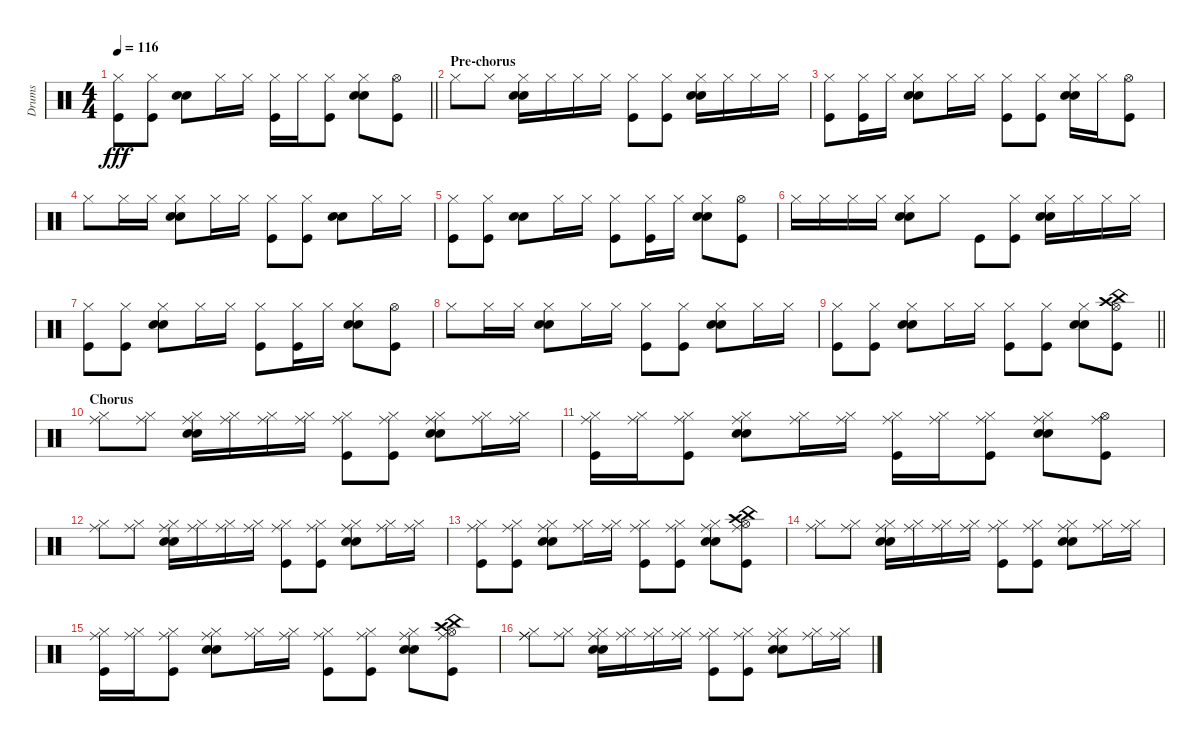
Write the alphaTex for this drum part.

\track ("Drums" "Drums") {instrument percussion}
\staff {score}
\articulation defaults
\ts (4 4)
\tempo 116
\clef neutral
\barLineRight lightlight
\ks c
("Hi-Hat (closed)" "Kick (hit)").8{dy fff} ("Hi-Hat (closed)" "Kick (hit)").8 ("Snare (hit) 2" "Electric Snare (hit)").8 "Hi-Hat (closed)".16 "Hi-Hat (closed)".16 ("Hi-Hat (closed)" "Kick (hit)").16 "Hi-Hat (closed)".16 ("Hi-Hat (closed)" "Kick (hit)").8 ("Hi-Hat (closed)" "Snare (hit) 2" "Electric Snare (hit)").8 ("Hi-Hat (open)" "Kick (hit)").8 |
\section ("" "Pre-chorus")
"Hi-Hat (closed)".8 "Hi-Hat (closed)".8 ("Snare (hit) 2" "Electric Snare (hit)" "Hi-Hat (closed)").16 "Hi-Hat (closed)".16 "Hi-Hat (closed)".16 "Hi-Hat (closed)".16 ("Hi-Hat (closed)" "Kick (hit)").8 ("Hi-Hat (closed)" "Kick (hit)").8 ("Hi-Hat (closed)" "Snare (hit) 2" "Electric Snare (hit)").16 "Hi-Hat (closed)".16 "Hi-Hat (closed)".16 "Hi-Hat (closed)".16 |
("Hi-Hat (closed)" "Kick (hit)").8 ("Hi-Hat (closed)" "Kick (hit)").16 "Hi-Hat (closed)".16 ("Snare (hit) 2" "Electric Snare (hit)" "Hi-Hat (closed)").8 "Hi-Hat (closed)".16 "Hi-Hat (closed)".16 ("Kick (hit)" "Hi-Hat (closed)").8 ("Hi-Hat (closed)" "Kick (hit)").8 ("Hi-Hat (closed)" "Snare (hit) 2" "Electric Snare (hit)").16 "Hi-Hat (closed)".16 ("Hi-Hat (open)" "Kick (hit)").8 |
"Hi-Hat (closed)".8 "Hi-Hat (closed)".16 "Hi-Hat (closed)".16 ("Hi-Hat (closed)" "Snare (hit) 2" "Electric Snare (hit)").8 "Hi-Hat (closed)".16 "Hi-Hat (closed)".16 ("Hi-Hat (closed)" "Kick (hit)").8 ("Hi-Hat (closed)" "Kick (hit)").8 ("Snare (hit) 2" "Electric Snare (hit)").8 "Hi-Hat (closed)".16 "Hi-Hat (closed)".16 |
("Hi-Hat (closed)" "Kick (hit)").8 ("Hi-Hat (closed)" "Kick (hit)").8 ("Snare (hit) 2" "Electric Snare (hit)").8 "Hi-Hat (closed)".16 "Hi-Hat (closed)".16 ("Hi-Hat (closed)" "Kick (hit)").8 ("Hi-Hat (closed)" "Kick (hit)").16 "Hi-Hat (closed)".16 ("Snare (hit) 2" "Electric Snare (hit)" "Hi-Hat (closed)").8 ("Hi-Hat (open)" "Kick (hit)").8 |
"Hi-Hat (closed)".16 "Hi-Hat (closed)".16 "Hi-Hat (closed)".16 "Hi-Hat (closed)".16 ("Snare (hit) 2" "Electric Snare (hit)" "Hi-Hat (closed)").8 "Hi-Hat (closed)".8 "Kick (hit)".8 ("Hi-Hat (closed)" "Kick (hit)").8 ("Hi-Hat (closed)" "Snare (hit) 2" "Electric Snare (hit)").16 "Hi-Hat (closed)".16 "Hi-Hat (closed)".16 "Hi-Hat (closed)".16 |
("Hi-Hat (closed)" "Kick (hit)").8 ("Hi-Hat (closed)" "Kick (hit)").8 ("Snare (hit) 2" "Electric Snare (hit)" "Hi-Hat (closed)").8 "Hi-Hat (closed)".16 "Hi-Hat (closed)".16 ("Hi-Hat (closed)" "Kick (hit)").8 ("Hi-Hat (closed)" "Kick (hit)").16 "Hi-Hat (closed)".16 ("Snare (hit) 2" "Electric Snare (hit)" "Hi-Hat (closed)").8 ("Hi-Hat (open)" "Kick (hit)").8 |
"Hi-Hat (closed)".8 "Hi-Hat (closed)".16 "Hi-Hat (closed)".16 ("Snare (hit) 2" "Electric Snare (hit)" "Hi-Hat (closed)").8 "Hi-Hat (closed)".16 "Hi-Hat (closed)".16 ("Hi-Hat (closed)" "Kick (hit)").8 ("Hi-Hat (closed)" "Kick (hit)").8 ("Snare (hit) 2" "Electric Snare (hit)" "Hi-Hat (closed)").8 "Hi-Hat (closed)".16 "Hi-Hat (closed)".16 |
\barLineRight lightlight
("Hi-Hat (closed)" "Kick (hit)").8 ("Hi-Hat (closed)" "Kick (hit)").8 ("Snare (hit) 2" "Electric Snare (hit)" "Hi-Hat (closed)").8 "Hi-Hat (closed)".16 "Hi-Hat (closed)".16 ("Hi-Hat (closed)" "Kick (hit)").8 ("Hi-Hat (closed)" "Kick (hit)").8 ("Hi-Hat (closed)" "Snare (hit) 2" "Electric Snare (hit)").8 ("Crash high (hit)" "China (hit)" "Hi-Hat (open)" "Kick (hit)").8 |
\section ("" "Chorus")
("Ride (middle)" "Hi-Hat (closed)").8 ("Ride (middle)" "Hi-Hat (closed)").8 ("Snare (hit) 2" "Electric Snare (hit)" "Ride (middle)" "Hi-Hat (closed)").16 ("Ride (middle)" "Hi-Hat (closed)").16 ("Ride (middle)" "Hi-Hat (closed)").16 ("Ride (middle)" "Hi-Hat (closed)").16 ("Kick (hit)" "Ride (middle)" "Hi-Hat (closed)").8 ("Ride (middle)" "Hi-Hat (closed)" "Kick (hit)").8 ("Snare (hit) 2" "Electric Snare (hit)" "Ride (middle)" "Hi-Hat (closed)").8 ("Ride (middle)" "Hi-Hat (closed)").16 ("Ride (middle)" "Hi-Hat (closed)").16 |
("Ride (middle)" "Hi-Hat (closed)" "Kick (hit)").16 ("Ride (middle)" "Hi-Hat (closed)").16 ("Ride (middle)" "Hi-Hat (closed)" "Kick (hit)").8 ("Ride (middle)" "Hi-Hat (closed)" "Snare (hit) 2" "Electric Snare (hit)").8 ("Ride (middle)" "Hi-Hat (closed)").16 ("Ride (middle)" "Hi-Hat (closed)").16 ("Ride (middle)" "Hi-Hat (closed)" "Kick (hit)").16 ("Ride (middle)" "Hi-Hat (closed)").16 ("Ride (middle)" "Hi-Hat (closed)" "Kick (hit)").8 ("Snare (hit) 2" "Electric Snare (hit)" "Ride (middle)" "Hi-Hat (closed)").8 ("Ride (middle)" "Hi-Hat (open)" "Kick (hit)").8 |
("Ride (middle)" "Hi-Hat (closed)").8 ("Ride (middle)" "Hi-Hat (closed)").8 ("Snare (hit) 2" "Electric Snare (hit)" "Ride (middle)" "Hi-Hat (closed)").16 ("Ride (middle)" "Hi-Hat (closed)").16 ("Ride (middle)" "Hi-Hat (closed)").16 ("Ride (middle)" "Hi-Hat (closed)").16 ("Ride (middle)" "Hi-Hat (closed)" "Kick (hit)").8 ("Ride (middle)" "Hi-Hat (closed)" "Kick (hit)").8 ("Snare (hit) 2" "Electric Snare (hit)" "Ride (middle)" "Hi-Hat (closed)").8 ("Ride (middle)" "Hi-Hat (closed)").16 ("Ride (middle)" "Hi-Hat (closed)").16 |
("Ride (middle)" "Hi-Hat (closed)" "Kick (hit)").8 ("Ride (middle)" "Hi-Hat (closed)" "Kick (hit)").8 ("Ride (middle)" "Hi-Hat (closed)" "Snare (hit) 2" "Electric Snare (hit)").8 ("Ride (middle)" "Hi-Hat (closed)").16 ("Ride (middle)" "Hi-Hat (closed)").16 ("Ride (middle)" "Hi-Hat (closed)" "Kick (hit)").8 ("Ride (middle)" "Hi-Hat (closed)" "Kick (hit)").8 ("Snare (hit) 2" "Electric Snare (hit)" "Ride (middle)" "Hi-Hat (closed)").8 ("Crash high (hit)" "China (hit)" "Ride (middle)" "Hi-Hat (open)" "Kick (hit)").8 |
("Ride (middle)" "Hi-Hat (closed)").8 ("Ride (middle)" "Hi-Hat (closed)").8 ("Snare (hit) 2" "Electric Snare (hit)" "Ride (middle)" "Hi-Hat (closed)").16 ("Ride (middle)" "Hi-Hat (closed)").16 ("Ride (middle)" "Hi-Hat (closed)").16 ("Ride (middle)" "Hi-Hat (closed)").16 ("Ride (middle)" "Hi-Hat (closed)" "Kick (hit)").8 ("Ride (middle)" "Hi-Hat (closed)" "Kick (hit)").8 ("Ride (middle)" "Hi-Hat (closed)" "Snare (hit) 2" "Electric Snare (hit)").8 ("Ride (middle)" "Hi-Hat (closed)").16 ("Ride (middle)" "Hi-Hat (closed)").16 |
("Ride (middle)" "Hi-Hat (closed)" "Kick (hit)").16 ("Ride (middle)" "Hi-Hat (closed)").16 ("Ride (middle)" "Hi-Hat (closed)" "Kick (hit)").8 ("Snare (hit) 2" "Electric Snare (hit)" "Ride (middle)" "Hi-Hat (closed)").8 ("Ride (middle)" "Hi-Hat (closed)").16 ("Ride (middle)" "Hi-Hat (closed)").16 ("Ride (middle)" "Hi-Hat (closed)" "Kick (hit)").8 ("Ride (middle)" "Hi-Hat (closed)" "Kick (hit)").8 ("Snare (hit) 2" "Electric Snare (hit)" "Ride (middle)" "Hi-Hat (closed)").8 ("Crash high (hit)" "China (hit)" "Ride (middle)" "Hi-Hat (open)" "Kick (hit)").8 |
("Ride (middle)" "Hi-Hat (closed)" "Ride (middle)").8 ("Ride (middle)" "Hi-Hat (closed)").8 ("Snare (hit) 2" "Electric Snare (hit)" "Ride (middle)" "Hi-Hat (closed)").16 ("Ride (middle)" "Hi-Hat (closed)").16 ("Ride (middle)" "Hi-Hat (closed)").16 ("Ride (middle)" "Hi-Hat (closed)").16 ("Ride (middle)" "Hi-Hat (closed)" "Kick (hit)").8 ("Ride (middle)" "Hi-Hat (closed)" "Kick (hit)").8 ("Snare (hit) 2" "Electric Snare (hit)" "Ride (middle)" "Hi-Hat (closed)").8 ("Ride (middle)" "Hi-Hat (closed)").16 ("Ride (middle)" "Hi-Hat (closed)").16
